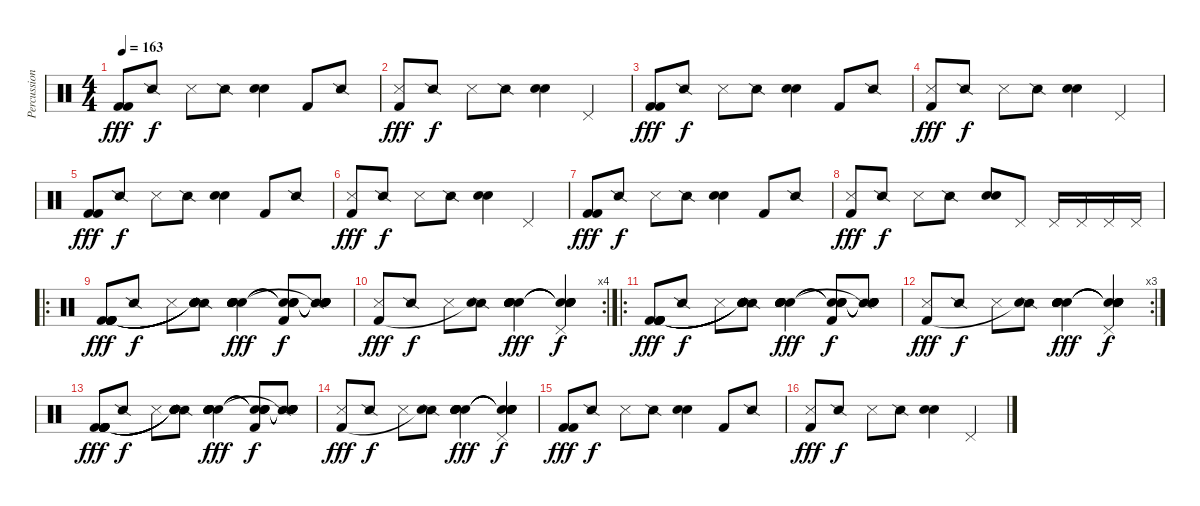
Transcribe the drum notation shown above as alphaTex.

\track ("Percussion" "Percussion") {instrument percussion}
\staff {score}
\articulation defaults
\ts (4 4)
\tempo 163
\clef neutral
\ks c
("Kick (hit) 2" "Kick (hit) 2").8{dy fff} "Snare (side stick) 2".8{dy f} "Metronome (hit)".8 "Snare (side stick) 2".8 ("Snare (hit) 2" "Hand Clap (hit)").4 "Kick (hit) 2".8 "Snare (side stick) 2".8 |
("Metronome (hit)" "Kick (hit) 2").8{dy fff} "Snare (side stick) 2".8{dy f} "Metronome (hit)".8 "Snare (side stick) 2".8 ("Snare (hit) 2" "Hand Clap (hit)").4 "Pedal Hi-Hat (hit)".4 |
("Kick (hit) 2" "Kick (hit) 2").8{dy fff} "Snare (side stick) 2".8{dy f} "Metronome (hit)".8 "Snare (side stick) 2".8 ("Snare (hit) 2" "Hand Clap (hit)").4 "Kick (hit) 2".8 "Snare (side stick) 2".8 |
("Metronome (hit)" "Kick (hit) 2").8{dy fff} "Snare (side stick) 2".8{dy f} "Metronome (hit)".8 "Snare (side stick) 2".8 ("Snare (hit) 2" "Hand Clap (hit)").4 "Pedal Hi-Hat (hit)".4 |
("Kick (hit) 2" "Kick (hit) 2").8{dy fff} "Snare (side stick) 2".8{dy f} "Metronome (hit)".8 "Snare (side stick) 2".8 ("Snare (hit) 2" "Hand Clap (hit)").4 "Kick (hit) 2".8 "Snare (side stick) 2".8 |
("Metronome (hit)" "Kick (hit) 2").8{dy fff} "Snare (side stick) 2".8{dy f} "Metronome (hit)".8 "Snare (side stick) 2".8 ("Snare (hit) 2" "Hand Clap (hit)").4 "Pedal Hi-Hat (hit)".4 |
("Kick (hit) 2" "Kick (hit) 2").8{dy fff} "Snare (side stick) 2".8{dy f} "Metronome (hit)".8 "Snare (side stick) 2".8 ("Snare (hit) 2" "Hand Clap (hit)").4 "Kick (hit) 2".8 "Snare (side stick) 2".8 |
("Metronome (hit)" "Kick (hit) 2").8{dy fff} "Snare (side stick) 2".8{dy f} "Metronome (hit)".8 "Snare (side stick) 2".8 ("Snare (hit) 2" "Hand Clap (hit)").8 "Pedal Hi-Hat (hit)".8 "Pedal Hi-Hat (hit)".16 "Pedal Hi-Hat (hit)".16 "Pedal Hi-Hat (hit)".16 "Pedal Hi-Hat (hit)".16 |
\ro
("Kick (hit) 2" "Kick (hit) 2" "Kick (hit) 2" "Kick (hit) 2" "Kick (hit) 2" "Kick (hit) 2").8{dy fff} "Snare (side stick) 2".8{dy f} "Metronome (hit)".8 ("Snare (side stick) 2" "Snare (hit)"{t} "Snare (hit)"{t} "Snare (hit)"{t} "Snare (hit)"{t} "Snare (hit)"{t}).8 ("Snare (hit) 2" "Hand Clap (hit)" "Snare (hit) 2" "Hand Clap (hit)" "Snare (hit) 2" "Snare (hit) 2").4{dy fff} ("Kick (hit) 2" "Hand Clap (hit)"{t} "Hand Clap (hit)"{t} "Hand Clap (hit)"{t} "Snare (hit)"{t}).8{dy f} ("Snare (side stick) 2" "Snare (hit)"{t} "Snare (hit)"{t} "Snare (hit)"{t} "Snare (hit)"{t} "Snare (hit)"{t}).8 |
\rc 4
("Metronome (hit)" "Kick (hit) 2").8{dy fff} "Snare (side stick) 2".8{dy f} "Metronome (hit)".8 ("Snare (side stick) 2" "Snare (hit)"{t}).8 ("Snare (hit) 2" "Hand Clap (hit)" "Snare (hit) 2" "Hand Clap (hit)" "Snare (hit) 2" "Hand Clap (hit)").4{dy fff} ("Pedal Hi-Hat (hit)" "Snare (hit)"{t} "Snare (hit)"{t} "Snare (hit)"{t} "Snare (hit)"{t} "Snare (hit)"{t}).4{dy f} |
\ro
("Kick (hit) 2" "Kick (hit) 2" "Kick (hit) 2" "Kick (hit) 2" "Kick (hit) 2" "Kick (hit) 2").8{dy fff} "Snare (side stick) 2".8{dy f} "Metronome (hit)".8 ("Snare (side stick) 2" "Snare (hit)"{t} "Snare (hit)"{t} "Snare (hit)"{t} "Snare (hit)"{t} "Snare (hit)"{t}).8 ("Snare (hit) 2" "Hand Clap (hit)" "Snare (hit) 2" "Hand Clap (hit)" "Snare (hit) 2" "Snare (hit) 2").4{dy fff} ("Kick (hit) 2" "Hand Clap (hit)"{t} "Hand Clap (hit)"{t} "Hand Clap (hit)"{t} "Snare (hit)"{t}).8{dy f} ("Snare (side stick) 2" "Snare (hit)"{t} "Snare (hit)"{t} "Snare (hit)"{t} "Snare (hit)"{t} "Snare (hit)"{t}).8 |
\rc 3
("Metronome (hit)" "Kick (hit) 2").8{dy fff} "Snare (side stick) 2".8{dy f} "Metronome (hit)".8 ("Snare (side stick) 2" "Snare (hit)"{t}).8 ("Snare (hit) 2" "Hand Clap (hit)" "Snare (hit) 2" "Hand Clap (hit)" "Snare (hit) 2" "Hand Clap (hit)").4{dy fff} ("Pedal Hi-Hat (hit)" "Snare (hit)"{t} "Snare (hit)"{t} "Snare (hit)"{t} "Snare (hit)"{t} "Snare (hit)"{t}).4{dy f} |
("Kick (hit) 2" "Kick (hit) 2" "Kick (hit) 2" "Kick (hit) 2" "Kick (hit) 2" "Kick (hit) 2").8{dy fff} "Snare (side stick) 2".8{dy f} "Metronome (hit)".8 ("Snare (side stick) 2" "Snare (hit)"{t} "Snare (hit)"{t} "Snare (hit)"{t} "Snare (hit)"{t} "Snare (hit)"{t}).8 ("Snare (hit) 2" "Hand Clap (hit)" "Snare (hit) 2" "Hand Clap (hit)" "Snare (hit) 2" "Snare (hit) 2").4{dy fff} ("Kick (hit) 2" "Hand Clap (hit)"{t} "Hand Clap (hit)"{t} "Hand Clap (hit)"{t} "Snare (hit)"{t}).8{dy f} ("Snare (side stick) 2" "Snare (hit)"{t} "Snare (hit)"{t} "Snare (hit)"{t} "Snare (hit)"{t} "Snare (hit)"{t}).8 |
("Metronome (hit)" "Kick (hit) 2").8{dy fff} "Snare (side stick) 2".8{dy f} "Metronome (hit)".8 ("Snare (side stick) 2" "Snare (hit)"{t}).8 ("Snare (hit) 2" "Hand Clap (hit)" "Snare (hit) 2" "Hand Clap (hit)" "Snare (hit) 2" "Hand Clap (hit)").4{dy fff} ("Pedal Hi-Hat (hit)" "Snare (hit)"{t} "Snare (hit)"{t} "Snare (hit)"{t} "Snare (hit)"{t} "Snare (hit)"{t}).4{dy f} |
("Kick (hit) 2" "Kick (hit) 2").8{dy fff} "Snare (side stick) 2".8{dy f} "Metronome (hit)".8 "Snare (side stick) 2".8 ("Snare (hit) 2" "Hand Clap (hit)").4 "Kick (hit) 2".8 "Snare (side stick) 2".8 |
("Metronome (hit)" "Kick (hit) 2").8{dy fff} "Snare (side stick) 2".8{dy f} "Metronome (hit)".8 "Snare (side stick) 2".8 ("Snare (hit) 2" "Hand Clap (hit)").4 "Pedal Hi-Hat (hit)".4
